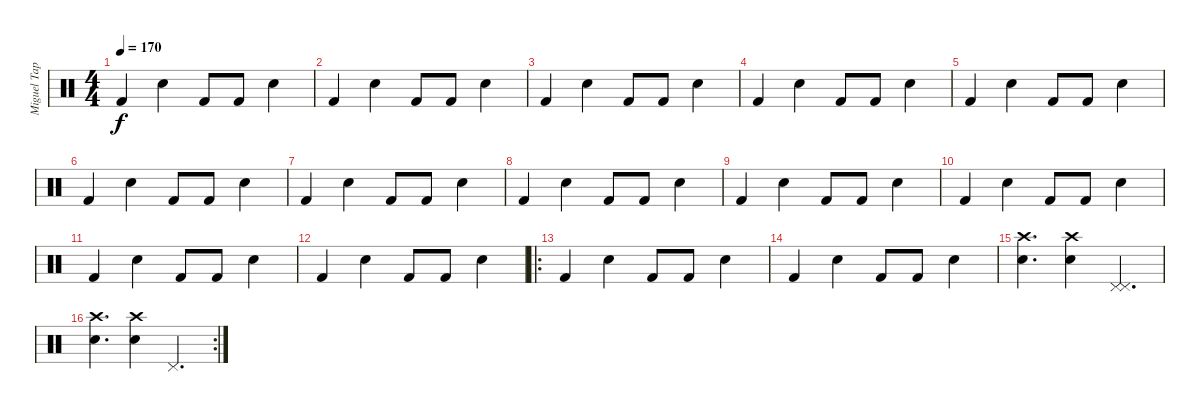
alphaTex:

\track ("Miguel Tapia" "Miguel Tap") {instrument percussion}
\staff {score}
\articulation defaults
\ts (4 4)
\tempo 170
\clef neutral
\ks c "Kick (hit) 2".4{dy f} "Snare (hit) 2".4 "Kick (hit) 2".8 "Kick (hit) 2".8 "Snare (hit) 2".4
|
"Kick (hit) 2".4 "Snare (hit) 2".4 "Kick (hit) 2".8 "Kick (hit) 2".8 "Snare (hit) 2".4 |
"Kick (hit) 2".4 "Snare (hit) 2".4 "Kick (hit) 2".8 "Kick (hit) 2".8 "Snare (hit) 2".4 |
"Kick (hit) 2".4 "Snare (hit) 2".4 "Kick (hit) 2".8 "Kick (hit) 2".8 "Snare (hit) 2".4 |
"Kick (hit) 2".4 "Snare (hit) 2".4 "Kick (hit) 2".8 "Kick (hit) 2".8 "Snare (hit) 2".4 |
"Kick (hit) 2".4 "Snare (hit) 2".4 "Kick (hit) 2".8 "Kick (hit) 2".8 "Snare (hit) 2".4 |
"Kick (hit) 2".4 "Snare (hit) 2".4 "Kick (hit) 2".8 "Kick (hit) 2".8 "Snare (hit) 2".4 |
"Kick (hit) 2".4 "Snare (hit) 2".4 "Kick (hit) 2".8 "Kick (hit) 2".8 "Snare (hit) 2".4 |
"Kick (hit) 2".4 "Snare (hit) 2".4 "Kick (hit) 2".8 "Kick (hit) 2".8 "Snare (hit) 2".4 |
"Kick (hit) 2".4 "Snare (hit) 2".4 "Kick (hit) 2".8 "Kick (hit) 2".8 "Snare (hit) 2".4 |
"Kick (hit) 2".4 "Snare (hit) 2".4 "Kick (hit) 2".8 "Kick (hit) 2".8 "Snare (hit) 2".4 |
"Kick (hit) 2".4 "Snare (hit) 2".4 "Kick (hit) 2".8 "Kick (hit) 2".8 "Snare (hit) 2".4 |
\ro "Kick (hit) 2".4 "Snare (hit) 2".4 "Kick (hit) 2".8 "Kick (hit) 2".8 "Snare (hit) 2".4
|
"Kick (hit) 2".4 "Snare (hit) 2".4 "Kick (hit) 2".8 "Kick (hit) 2".8 "Snare (hit) 2".4 |
("Snare (hit) 2" "Crash high (hit)").4{d} ("Snare (hit) 2" "Crash high (hit)").4 ("Pedal Hi-Hat (hit)" "Pedal Hi-Hat (hit)").4{d} |
\rc 2
("Snare (hit) 2" "Crash high (hit)").4{d} ("Snare (hit) 2" "Crash high (hit)").4 "Pedal Hi-Hat (hit)".4{d}
